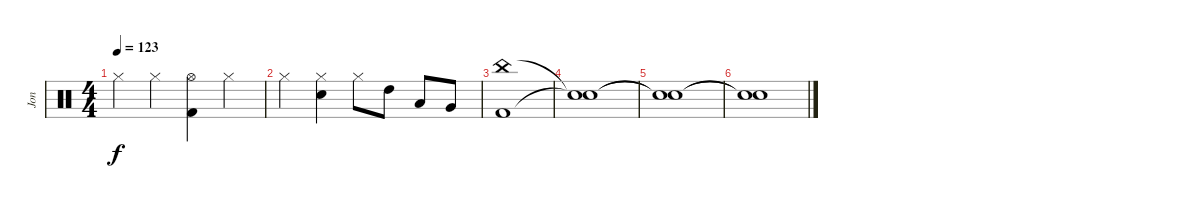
\track ("Jon" "Jon") {instrument percussion}
\staff {score}
\articulation defaults
\ts (4 4)
\tempo 123
\clef neutral
\ks c "Hi-Hat (closed)".4{dy f} "Hi-Hat (closed)".4
("Hi-Hat (open)" "Kick (hit) 2").4 "Hi-Hat (closed)".4 |
"Hi-Hat (closed)".4 ("Hi-Hat (closed)" "Snare (hit) 2").4 "Hi-Hat (closed)".8 "High Tom (hit)".8 "Low Tom (hit)".8 "Very Low Tom (hit)".8 |
("China (hit)" "Kick (hit) 2").1 |
("Snare (hit)"{t} "Snare (hit)"{t}).1 |
("Snare (hit)"{t} "Snare (hit)"{t}).1 |
("Snare (hit)"{t} "Snare (hit)"{t}).1
